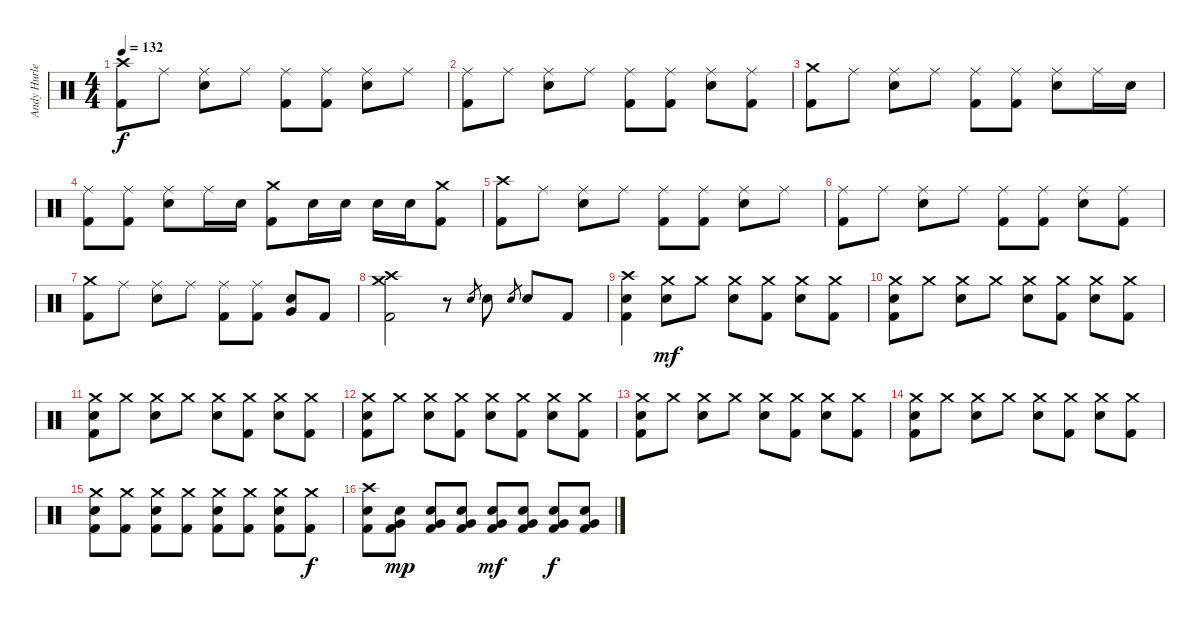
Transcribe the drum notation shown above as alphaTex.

\track ("Andy Hurley" "Andy Hurle") {instrument percussion}
\staff {score}
\articulation defaults
\ts (4 4)
\tempo 132
\clef neutral
\ks c
("Crash high (hit)" "Kick (hit) 2").8{dy f} "Ride (middle)".8 ("Ride (middle)" "Snare (hit) 2").8 "Ride (middle)".8 ("Ride (middle)" "Kick (hit) 2").8 ("Ride (middle)" "Kick (hit) 2").8 ("Ride (middle)" "Snare (hit) 2").8 "Ride (middle)".8 |
("Ride (middle)" "Kick (hit) 2").8 "Ride (middle)".8 ("Ride (middle)" "Snare (hit) 2").8 "Ride (middle)".8 ("Ride (middle)" "Kick (hit) 2").8 ("Ride (middle)" "Kick (hit) 2").8 ("Ride (middle)" "Snare (hit) 2").8 ("Ride (middle)" "Kick (hit) 2").8 |
("Crash medium (hit)" "Kick (hit) 2").8 "Ride (middle)".8 ("Ride (middle)" "Snare (hit) 2").8 "Ride (middle)".8 ("Ride (middle)" "Kick (hit) 2").8 ("Ride (middle)" "Kick (hit) 2").8 ("Ride (middle)" "Snare (hit) 2").8 "Ride (middle)".16 "Snare (hit) 2".16 |
("Ride (middle)" "Kick (hit) 2").8 ("Ride (middle)" "Kick (hit) 2").8 ("Ride (middle)" "Snare (hit) 2").8 "Ride (middle)".16 "Snare (hit) 2".16 ("Crash medium (hit)" "Kick (hit) 2").8 "Snare (hit) 2".16 "Snare (hit) 2".16 "Snare (hit) 2".16 "Snare (hit) 2".16 ("Crash medium (hit)" "Kick (hit) 2").8 |
("Crash high (hit)" "Kick (hit) 2").8 "Ride (middle)".8 ("Ride (middle)" "Snare (hit) 2").8 "Ride (middle)".8 ("Ride (middle)" "Kick (hit) 2").8 ("Ride (middle)" "Kick (hit) 2").8 ("Ride (middle)" "Snare (hit) 2").8 "Ride (middle)".8 |
("Ride (middle)" "Kick (hit) 2").8 "Ride (middle)".8 ("Ride (middle)" "Snare (hit) 2").8 "Ride (middle)".8 ("Ride (middle)" "Kick (hit) 2").8 ("Ride (middle)" "Kick (hit) 2").8 ("Ride (middle)" "Snare (hit) 2").8 ("Ride (middle)" "Kick (hit) 2").8 |
("Crash medium (hit)" "Kick (hit) 2").8 "Ride (middle)".8 ("Ride (middle)" "Snare (hit) 2").8 "Ride (middle)".8 ("Ride (middle)" "Kick (hit) 2").8 ("Ride (middle)" "Kick (hit) 2").8 ("Snare (hit) 2" "Very Low Tom (hit)").8 "Kick (hit) 2".8 |
("Crash high (hit)" "Crash medium (hit)" "Kick (hit) 2").2 r.8 "Snare (hit) 2".8{gr} "Snare (hit) 2".8 "Snare (hit) 2".8{gr} "Snare (hit) 2".8 "Kick (hit) 2".8 |
("Crash high (hit)" "Snare (hit) 2" "Kick (hit) 2").4 ("Crash medium (hit)" "Snare (hit) 2").8{dy mf} "Crash medium (hit)".8 ("Crash medium (hit)" "Snare (hit) 2").8 ("Crash medium (hit)" "Kick (hit) 2").8 ("Crash medium (hit)" "Snare (hit) 2").8 ("Crash medium (hit)" "Kick (hit) 2").8 |
("Crash medium (hit)" "Snare (hit) 2" "Kick (hit) 2").8 "Crash medium (hit)".8 ("Crash medium (hit)" "Snare (hit) 2").8 "Crash medium (hit)".8 ("Crash medium (hit)" "Snare (hit) 2").8 ("Crash medium (hit)" "Kick (hit) 2").8 ("Crash medium (hit)" "Snare (hit) 2").8 ("Crash medium (hit)" "Kick (hit) 2").8 |
("Crash medium (hit)" "Snare (hit) 2" "Kick (hit) 2").8 "Crash medium (hit)".8 ("Crash medium (hit)" "Snare (hit) 2").8 "Crash medium (hit)".8 ("Crash medium (hit)" "Snare (hit) 2").8 ("Crash medium (hit)" "Kick (hit) 2").8 ("Crash medium (hit)" "Snare (hit) 2").8 ("Crash medium (hit)" "Kick (hit) 2").8 |
("Crash medium (hit)" "Snare (hit) 2" "Kick (hit) 2").8 "Crash medium (hit)".8 ("Crash medium (hit)" "Snare (hit) 2").8 ("Crash medium (hit)" "Kick (hit) 2").8 ("Crash medium (hit)" "Snare (hit) 2").8 ("Crash medium (hit)" "Kick (hit) 2").8 ("Crash medium (hit)" "Snare (hit) 2").8 ("Crash medium (hit)" "Kick (hit) 2").8 |
("Crash medium (hit)" "Snare (hit) 2" "Kick (hit) 2").8 "Crash medium (hit)".8 ("Crash medium (hit)" "Snare (hit) 2").8 "Crash medium (hit)".8 ("Crash medium (hit)" "Snare (hit) 2").8 ("Crash medium (hit)" "Kick (hit) 2").8 ("Crash medium (hit)" "Snare (hit) 2").8 ("Crash medium (hit)" "Kick (hit) 2").8 |
("Crash medium (hit)" "Snare (hit) 2" "Kick (hit) 2").8 "Crash medium (hit)".8 ("Crash medium (hit)" "Snare (hit) 2").8 "Crash medium (hit)".8 ("Crash medium (hit)" "Snare (hit) 2").8 ("Crash medium (hit)" "Kick (hit) 2").8 ("Crash medium (hit)" "Snare (hit) 2").8 ("Crash medium (hit)" "Kick (hit) 2").8 |
("Crash medium (hit)" "Snare (hit) 2" "Kick (hit) 2").8 ("Crash medium (hit)" "Kick (hit) 2").8 ("Crash medium (hit)" "Snare (hit) 2" "Kick (hit) 2").8 ("Crash medium (hit)" "Kick (hit) 2").8 ("Crash medium (hit)" "Snare (hit) 2" "Kick (hit) 2").8 ("Crash medium (hit)" "Kick (hit) 2").8 ("Crash medium (hit)" "Snare (hit) 2" "Kick (hit) 2").8 ("Crash medium (hit)" "Kick (hit) 2").8{dy f} |
("Crash high (hit)" "Snare (hit) 2" "Kick (hit) 2").8 ("Snare (hit) 2" "Very Low Tom (hit)" "Kick (hit) 2").8{dy mp} ("Snare (hit) 2" "Very Low Tom (hit)" "Kick (hit) 2").8 ("Snare (hit) 2" "Very Low Tom (hit)" "Kick (hit) 2").8 ("Snare (hit) 2" "Very Low Tom (hit)" "Kick (hit) 2").8{dy mf} ("Snare (hit) 2" "Very Low Tom (hit)" "Kick (hit) 2").8 ("Snare (hit) 2" "Very Low Tom (hit)" "Kick (hit) 2").8{dy f} ("Snare (hit) 2" "Very Low Tom (hit)" "Kick (hit) 2").8
